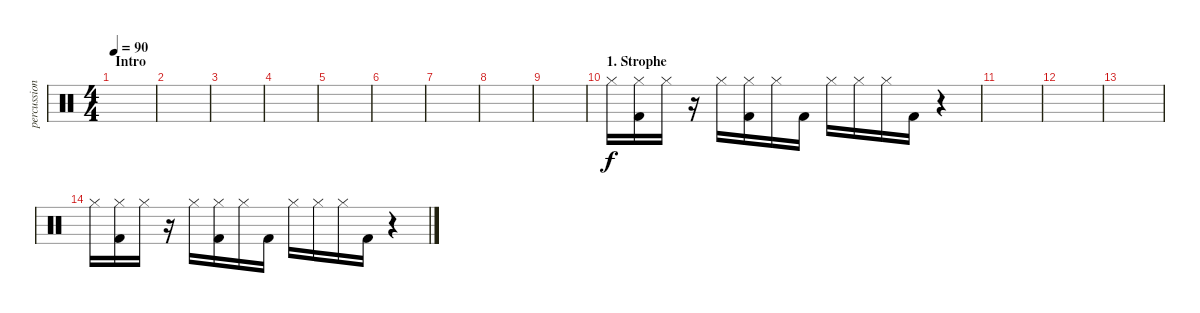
\track ("percussion" "percussion") {instrument percussion}
\staff {score}
\articulation defaults
\ts (4 4)
\section ("" "Intro")
\tempo 90
\clef neutral
\ks c
|
|
|
|
|
|
|
|
|
\section ("" "1. Strophe")
"Hi-Hat (closed)".16 ("Hi-Hat (closed)" "Kick (hit) 2").16 "Hi-Hat (closed)".16 r.16 "Hi-Hat (closed)".16 ("Hi-Hat (closed)" "Kick (hit) 2").16 "Hi-Hat (closed)".16 "Kick (hit) 2".16 "Hi-Hat (closed)".16 "Hi-Hat (closed)".16 "Hi-Hat (closed)".16 "Kick (hit) 2".16 r.4 |
|
|
|
"Hi-Hat (closed)".16 ("Hi-Hat (closed)" "Kick (hit) 2").16 "Hi-Hat (closed)".16 r.16 "Hi-Hat (closed)".16 ("Hi-Hat (closed)" "Kick (hit) 2").16 "Hi-Hat (closed)".16 "Kick (hit) 2".16 "Hi-Hat (closed)".16 "Hi-Hat (closed)".16 "Hi-Hat (closed)".16 "Kick (hit) 2".16 r.4
